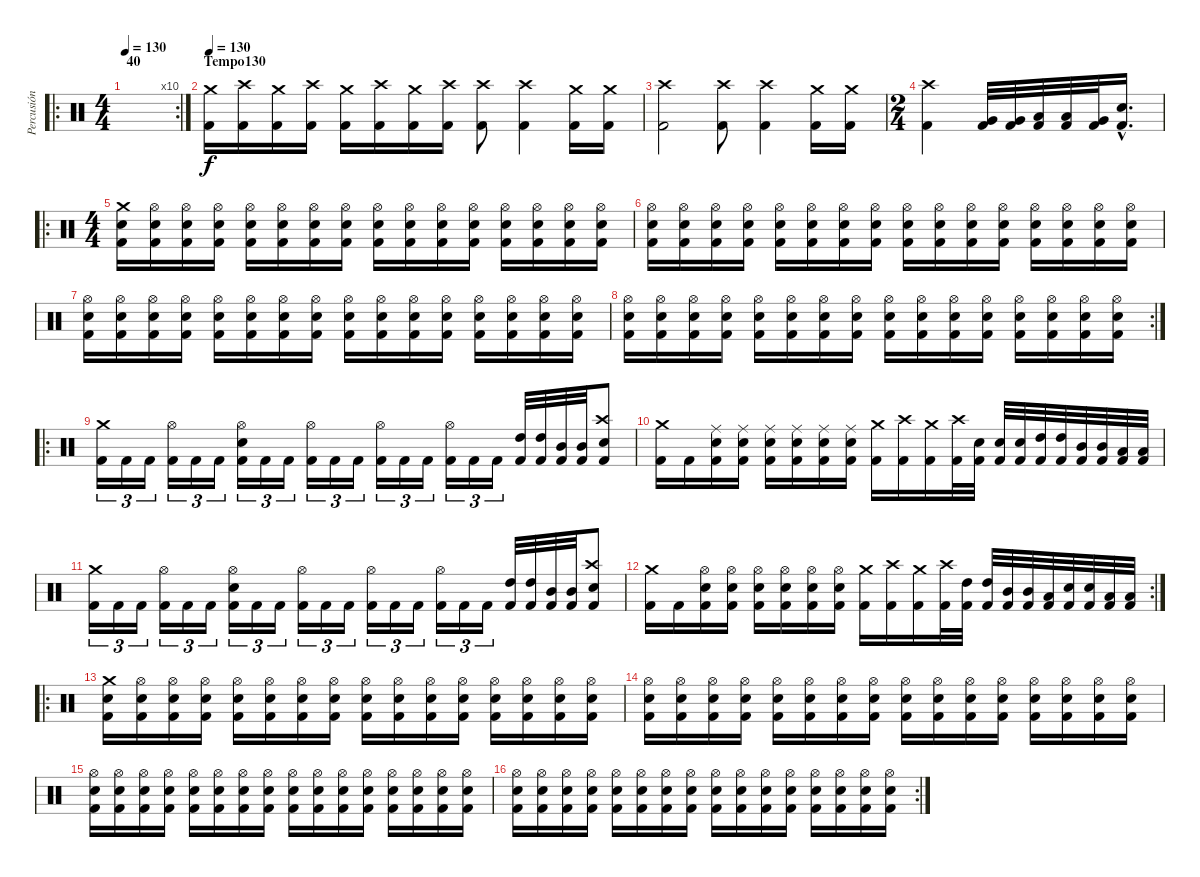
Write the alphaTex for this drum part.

\track ("Percusión" "Percusión") {instrument percussion}
\staff {score}
\articulation defaults
\ro
\rc 10
\ts (4 4)
\section ("" "40")
\tempo 130
\tempo 40
\tempo 130
\clef neutral
\ks c
|
\section ("" "Tempo130")
\tempo 130
("Crash medium (hit)" "Kick (hit) 2").16 ("Crash high (hit)" "Kick (hit) 2").16 ("Crash medium (hit)" "Kick (hit) 2").16 ("Crash high (hit)" "Kick (hit) 2").16 ("Crash medium (hit)" "Kick (hit) 2").16 ("Crash high (hit)" "Kick (hit) 2").16 ("Crash medium (hit)" "Kick (hit) 2").16 ("Crash high (hit)" "Kick (hit) 2").16 ("Crash high (hit)" "Kick (hit) 2").8 ("Crash high (hit)" "Kick (hit) 2").4 ("Crash medium (hit)" "Kick (hit) 2").16 ("Crash medium (hit)" "Kick (hit) 2").16 |
("Crash high (hit)" "Kick (hit) 2").2 ("Crash high (hit)" "Kick (hit) 2").8 ("Crash high (hit)" "Kick (hit) 2").4 ("Crash medium (hit)" "Kick (hit) 2").16 ("Crash medium (hit)" "Kick (hit) 2").16 |
\ts (2 4)
("Crash high (hit)" "Kick (hit) 2").4 ("Very Low Tom (hit)" "Kick (hit) 2").32 ("Very Low Tom (hit)" "Kick (hit) 2").32 ("Low Floor Tom (hit)" "Kick (hit) 2").32 ("Low Floor Tom (hit)" "Kick (hit) 2").32 ("Very Low Tom (hit)" "Kick (hit) 2").32 ("Electric Snare (hit)"{hac} "Kick (hit) 2"{hac}).16{d} |
\ro
\ts (4 4)
("Crash medium (hit)" "Electric Snare (hit)" "Kick (hit) 2").16 ("Hi-Hat (open)" "Electric Snare (hit)" "Kick (hit) 2").16 ("Hi-Hat (open)" "Electric Snare (hit)" "Kick (hit) 2").16 ("Hi-Hat (open)" "Electric Snare (hit)" "Kick (hit) 2").16 ("Hi-Hat (open)" "Electric Snare (hit)" "Kick (hit) 2").16 ("Hi-Hat (open)" "Electric Snare (hit)" "Kick (hit) 2").16 ("Hi-Hat (open)" "Electric Snare (hit)" "Kick (hit) 2").16 ("Hi-Hat (open)" "Electric Snare (hit)" "Kick (hit) 2").16 ("Hi-Hat (open)" "Electric Snare (hit)" "Kick (hit) 2").16 ("Hi-Hat (open)" "Electric Snare (hit)" "Kick (hit) 2").16 ("Hi-Hat (open)" "Electric Snare (hit)" "Kick (hit) 2").16 ("Hi-Hat (open)" "Electric Snare (hit)" "Kick (hit) 2").16 ("Hi-Hat (open)" "Electric Snare (hit)" "Kick (hit) 2").16 ("Hi-Hat (open)" "Electric Snare (hit)" "Kick (hit) 2").16 ("Hi-Hat (open)" "Electric Snare (hit)" "Kick (hit) 2").16 ("Hi-Hat (open)" "Electric Snare (hit)" "Kick (hit) 2").16 |
("Hi-Hat (open)" "Electric Snare (hit)" "Kick (hit) 2").16 ("Hi-Hat (open)" "Electric Snare (hit)" "Kick (hit) 2").16 ("Hi-Hat (open)" "Electric Snare (hit)" "Kick (hit) 2").16 ("Hi-Hat (open)" "Electric Snare (hit)" "Kick (hit) 2").16 ("Hi-Hat (open)" "Electric Snare (hit)" "Kick (hit) 2").16 ("Hi-Hat (open)" "Electric Snare (hit)" "Kick (hit) 2").16 ("Hi-Hat (open)" "Electric Snare (hit)" "Kick (hit) 2").16 ("Hi-Hat (open)" "Electric Snare (hit)" "Kick (hit) 2").16 ("Hi-Hat (open)" "Electric Snare (hit)" "Kick (hit) 2").16 ("Hi-Hat (open)" "Electric Snare (hit)" "Kick (hit) 2").16 ("Hi-Hat (open)" "Electric Snare (hit)" "Kick (hit) 2").16 ("Hi-Hat (open)" "Electric Snare (hit)" "Kick (hit) 2").16 ("Hi-Hat (open)" "Electric Snare (hit)" "Kick (hit) 2").16 ("Hi-Hat (open)" "Electric Snare (hit)" "Kick (hit) 2").16 ("Hi-Hat (open)" "Electric Snare (hit)" "Kick (hit) 2").16 ("Hi-Hat (open)" "Electric Snare (hit)" "Kick (hit) 2").16 |
("Hi-Hat (open)" "Electric Snare (hit)" "Kick (hit) 2").16 ("Hi-Hat (open)" "Electric Snare (hit)" "Kick (hit) 2").16 ("Hi-Hat (open)" "Electric Snare (hit)" "Kick (hit) 2").16 ("Hi-Hat (open)" "Electric Snare (hit)" "Kick (hit) 2").16 ("Hi-Hat (open)" "Electric Snare (hit)" "Kick (hit) 2").16 ("Hi-Hat (open)" "Electric Snare (hit)" "Kick (hit) 2").16 ("Hi-Hat (open)" "Electric Snare (hit)" "Kick (hit) 2").16 ("Hi-Hat (open)" "Electric Snare (hit)" "Kick (hit) 2").16 ("Hi-Hat (open)" "Electric Snare (hit)" "Kick (hit) 2").16 ("Hi-Hat (open)" "Electric Snare (hit)" "Kick (hit) 2").16 ("Hi-Hat (open)" "Electric Snare (hit)" "Kick (hit) 2").16 ("Hi-Hat (open)" "Electric Snare (hit)" "Kick (hit) 2").16 ("Hi-Hat (open)" "Electric Snare (hit)" "Kick (hit) 2").16 ("Hi-Hat (open)" "Electric Snare (hit)" "Kick (hit) 2").16 ("Hi-Hat (open)" "Electric Snare (hit)" "Kick (hit) 2").16 ("Hi-Hat (open)" "Electric Snare (hit)" "Kick (hit) 2").16 |
\rc 2
("Hi-Hat (open)" "Electric Snare (hit)" "Kick (hit) 2").16 ("Hi-Hat (open)" "Electric Snare (hit)" "Kick (hit) 2").16 ("Hi-Hat (open)" "Electric Snare (hit)" "Kick (hit) 2").16 ("Hi-Hat (open)" "Electric Snare (hit)" "Kick (hit) 2").16 ("Hi-Hat (open)" "Electric Snare (hit)" "Kick (hit) 2").16 ("Hi-Hat (open)" "Electric Snare (hit)" "Kick (hit) 2").16 ("Hi-Hat (open)" "Electric Snare (hit)" "Kick (hit) 2").16 ("Hi-Hat (open)" "Electric Snare (hit)" "Kick (hit) 2").16 ("Hi-Hat (open)" "Electric Snare (hit)" "Kick (hit) 2").16 ("Hi-Hat (open)" "Electric Snare (hit)" "Kick (hit) 2").16 ("Hi-Hat (open)" "Electric Snare (hit)" "Kick (hit) 2").16 ("Hi-Hat (open)" "Electric Snare (hit)" "Kick (hit) 2").16 ("Hi-Hat (open)" "Electric Snare (hit)" "Kick (hit) 2").16 ("Hi-Hat (open)" "Electric Snare (hit)" "Kick (hit) 2").16 ("Hi-Hat (open)" "Electric Snare (hit)" "Kick (hit) 2").16 ("Hi-Hat (open)" "Electric Snare (hit)" "Kick (hit) 2").16 |
\ro
("Crash medium (hit)" "Kick (hit) 2").16{tu (3 2)} "Kick (hit) 2".16{tu (3 2)} "Kick (hit) 2".16{tu (3 2)} ("Hi-Hat (open)" "Kick (hit) 2").16{tu (3 2)} "Kick (hit) 2".16{tu (3 2)} "Kick (hit) 2".16{tu (3 2)} ("Hi-Hat (open)" "Electric Snare (hit)" "Kick (hit) 2").16{tu (3 2)} "Kick (hit) 2".16{tu (3 2)} "Kick (hit) 2".16{tu (3 2)} ("Hi-Hat (open)" "Kick (hit) 2").16{tu (3 2)} "Kick (hit) 2".16{tu (3 2)} "Kick (hit) 2".16{tu (3 2)} ("Hi-Hat (open)" "Kick (hit) 2").16{tu (3 2)} "Kick (hit) 2".16{tu (3 2)} "Kick (hit) 2".16{tu (3 2)} ("Hi-Hat (open)" "Kick (hit) 2").16{tu (3 2)} "Kick (hit) 2".16{tu (3 2)} "Kick (hit) 2".16{tu (3 2)} ("High Tom (hit)" "Kick (hit) 2").32 ("High Tom (hit)" "Kick (hit) 2").32 ("Mid Tom (hit)" "Kick (hit) 2").32 ("Mid Tom (hit)" "Kick (hit) 2").32 ("Crash high (hit)" "Electric Snare (hit)" "Kick (hit) 2").8 |
("Crash medium (hit)" "Kick (hit) 2").16 "Kick (hit) 2".16 ("Ride (middle)" "Electric Snare (hit)" "Kick (hit) 2").16 ("Ride (middle)" "Electric Snare (hit)" "Kick (hit) 2").16 ("Ride (middle)" "Electric Snare (hit)" "Kick (hit) 2").16 ("Ride (middle)" "Electric Snare (hit)" "Kick (hit) 2").16 ("Ride (middle)" "Electric Snare (hit)" "Kick (hit) 2").16 ("Ride (middle)" "Electric Snare (hit)" "Kick (hit) 2").16 ("Crash medium (hit)" "Kick (hit) 2").16 ("Crash high (hit)" "Kick (hit) 2").16 ("Crash medium (hit)" "Kick (hit) 2").16 ("Crash high (hit)" "Kick (hit) 2").32 ("Electric Snare (hit)" "Kick (hit) 2").32 ("Electric Snare (hit)" "Kick (hit) 2").32 ("Electric Snare (hit)" "Kick (hit) 2").32 ("High Tom (hit)" "Kick (hit) 2").32 ("High Tom (hit)" "Kick (hit) 2").32 ("Mid Tom (hit)" "Kick (hit) 2").32 ("Mid Tom (hit)" "Kick (hit) 2").32 ("Low Tom (hit)" "Kick (hit) 2").32 ("Low Tom (hit)" "Kick (hit) 2").32 |
("Crash medium (hit)" "Kick (hit) 2").16{tu (3 2)} "Kick (hit) 2".16{tu (3 2)} "Kick (hit) 2".16{tu (3 2)} ("Hi-Hat (open)" "Kick (hit) 2").16{tu (3 2)} "Kick (hit) 2".16{tu (3 2)} "Kick (hit) 2".16{tu (3 2)} ("Hi-Hat (open)" "Electric Snare (hit)" "Kick (hit) 2").16{tu (3 2)} "Kick (hit) 2".16{tu (3 2)} "Kick (hit) 2".16{tu (3 2)} ("Hi-Hat (open)" "Kick (hit) 2").16{tu (3 2)} "Kick (hit) 2".16{tu (3 2)} "Kick (hit) 2".16{tu (3 2)} ("Hi-Hat (open)" "Kick (hit) 2").16{tu (3 2)} "Kick (hit) 2".16{tu (3 2)} "Kick (hit) 2".16{tu (3 2)} ("Hi-Hat (open)" "Kick (hit) 2").16{tu (3 2)} "Kick (hit) 2".16{tu (3 2)} "Kick (hit) 2".16{tu (3 2)} ("High Tom (hit)" "Kick (hit) 2").32 ("High Tom (hit)" "Kick (hit) 2").32 ("Mid Tom (hit)" "Kick (hit) 2").32 ("Mid Tom (hit)" "Kick (hit) 2").32 ("Crash high (hit)" "Electric Snare (hit)" "Kick (hit) 2").8 |
\rc 2
("Crash medium (hit)" "Kick (hit) 2").16 "Kick (hit) 2".16 ("Hi-Hat (open)" "Electric Snare (hit)" "Kick (hit) 2").16 ("Hi-Hat (open)" "Electric Snare (hit)" "Kick (hit) 2").16 ("Hi-Hat (open)" "Electric Snare (hit)" "Kick (hit) 2").16 ("Hi-Hat (open)" "Electric Snare (hit)" "Kick (hit) 2").16 ("Hi-Hat (open)" "Electric Snare (hit)" "Kick (hit) 2").16 ("Hi-Hat (open)" "Electric Snare (hit)" "Kick (hit) 2").16 ("Crash medium (hit)" "Kick (hit) 2").16 ("Crash high (hit)" "Kick (hit) 2").16 ("Crash medium (hit)" "Kick (hit) 2").16 ("Crash high (hit)" "Kick (hit) 2").32 ("High Tom (hit)" "Kick (hit) 2").32 ("High Tom (hit)" "Kick (hit) 2").32 ("Mid Tom (hit)" "Kick (hit) 2").32 ("Mid Tom (hit)" "Kick (hit) 2").32 ("Low Tom (hit)" "Kick (hit) 2").32 ("Electric Snare (hit)" "Kick (hit) 2").32 ("Electric Snare (hit)" "Kick (hit) 2").32 ("Low Tom (hit)" "Kick (hit) 2").32 ("Low Tom (hit)" "Kick (hit) 2").32 |
\ro
("Crash medium (hit)" "Electric Snare (hit)" "Kick (hit) 2").16 ("Hi-Hat (open)" "Electric Snare (hit)" "Kick (hit) 2").16 ("Hi-Hat (open)" "Electric Snare (hit)" "Kick (hit) 2").16 ("Hi-Hat (open)" "Electric Snare (hit)" "Kick (hit) 2").16 ("Hi-Hat (open)" "Electric Snare (hit)" "Kick (hit) 2").16 ("Hi-Hat (open)" "Electric Snare (hit)" "Kick (hit) 2").16 ("Hi-Hat (open)" "Electric Snare (hit)" "Kick (hit) 2").16 ("Hi-Hat (open)" "Electric Snare (hit)" "Kick (hit) 2").16 ("Hi-Hat (open)" "Electric Snare (hit)" "Kick (hit) 2").16 ("Hi-Hat (open)" "Electric Snare (hit)" "Kick (hit) 2").16 ("Hi-Hat (open)" "Electric Snare (hit)" "Kick (hit) 2").16 ("Hi-Hat (open)" "Electric Snare (hit)" "Kick (hit) 2").16 ("Hi-Hat (open)" "Electric Snare (hit)" "Kick (hit) 2").16 ("Hi-Hat (open)" "Electric Snare (hit)" "Kick (hit) 2").16 ("Hi-Hat (open)" "Electric Snare (hit)" "Kick (hit) 2").16 ("Hi-Hat (open)" "Electric Snare (hit)" "Kick (hit) 2").16 |
("Hi-Hat (open)" "Electric Snare (hit)" "Kick (hit) 2").16 ("Hi-Hat (open)" "Electric Snare (hit)" "Kick (hit) 2").16 ("Hi-Hat (open)" "Electric Snare (hit)" "Kick (hit) 2").16 ("Hi-Hat (open)" "Electric Snare (hit)" "Kick (hit) 2").16 ("Hi-Hat (open)" "Electric Snare (hit)" "Kick (hit) 2").16 ("Hi-Hat (open)" "Electric Snare (hit)" "Kick (hit) 2").16 ("Hi-Hat (open)" "Electric Snare (hit)" "Kick (hit) 2").16 ("Hi-Hat (open)" "Electric Snare (hit)" "Kick (hit) 2").16 ("Hi-Hat (open)" "Electric Snare (hit)" "Kick (hit) 2").16 ("Hi-Hat (open)" "Electric Snare (hit)" "Kick (hit) 2").16 ("Hi-Hat (open)" "Electric Snare (hit)" "Kick (hit) 2").16 ("Hi-Hat (open)" "Electric Snare (hit)" "Kick (hit) 2").16 ("Hi-Hat (open)" "Electric Snare (hit)" "Kick (hit) 2").16 ("Hi-Hat (open)" "Electric Snare (hit)" "Kick (hit) 2").16 ("Hi-Hat (open)" "Electric Snare (hit)" "Kick (hit) 2").16 ("Hi-Hat (open)" "Electric Snare (hit)" "Kick (hit) 2").16 |
("Hi-Hat (open)" "Electric Snare (hit)" "Kick (hit) 2").16 ("Hi-Hat (open)" "Electric Snare (hit)" "Kick (hit) 2").16 ("Hi-Hat (open)" "Electric Snare (hit)" "Kick (hit) 2").16 ("Hi-Hat (open)" "Electric Snare (hit)" "Kick (hit) 2").16 ("Hi-Hat (open)" "Electric Snare (hit)" "Kick (hit) 2").16 ("Hi-Hat (open)" "Electric Snare (hit)" "Kick (hit) 2").16 ("Hi-Hat (open)" "Electric Snare (hit)" "Kick (hit) 2").16 ("Hi-Hat (open)" "Electric Snare (hit)" "Kick (hit) 2").16 ("Hi-Hat (open)" "Electric Snare (hit)" "Kick (hit) 2").16 ("Hi-Hat (open)" "Electric Snare (hit)" "Kick (hit) 2").16 ("Hi-Hat (open)" "Electric Snare (hit)" "Kick (hit) 2").16 ("Hi-Hat (open)" "Electric Snare (hit)" "Kick (hit) 2").16 ("Hi-Hat (open)" "Electric Snare (hit)" "Kick (hit) 2").16 ("Hi-Hat (open)" "Electric Snare (hit)" "Kick (hit) 2").16 ("Hi-Hat (open)" "Electric Snare (hit)" "Kick (hit) 2").16 ("Hi-Hat (open)" "Electric Snare (hit)" "Kick (hit) 2").16 |
\rc 2
("Hi-Hat (open)" "Electric Snare (hit)" "Kick (hit) 2").16 ("Hi-Hat (open)" "Electric Snare (hit)" "Kick (hit) 2").16 ("Hi-Hat (open)" "Electric Snare (hit)" "Kick (hit) 2").16 ("Hi-Hat (open)" "Electric Snare (hit)" "Kick (hit) 2").16 ("Hi-Hat (open)" "Electric Snare (hit)" "Kick (hit) 2").16 ("Hi-Hat (open)" "Electric Snare (hit)" "Kick (hit) 2").16 ("Hi-Hat (open)" "Electric Snare (hit)" "Kick (hit) 2").16 ("Hi-Hat (open)" "Electric Snare (hit)" "Kick (hit) 2").16 ("Hi-Hat (open)" "Electric Snare (hit)" "Kick (hit) 2").16 ("Hi-Hat (open)" "Electric Snare (hit)" "Kick (hit) 2").16 ("Hi-Hat (open)" "Electric Snare (hit)" "Kick (hit) 2").16 ("Hi-Hat (open)" "Electric Snare (hit)" "Kick (hit) 2").16 ("Hi-Hat (open)" "Electric Snare (hit)" "Kick (hit) 2").16 ("Hi-Hat (open)" "Electric Snare (hit)" "Kick (hit) 2").16 ("Hi-Hat (open)" "Electric Snare (hit)" "Kick (hit) 2").16 ("Hi-Hat (open)" "Electric Snare (hit)" "Kick (hit) 2").16
